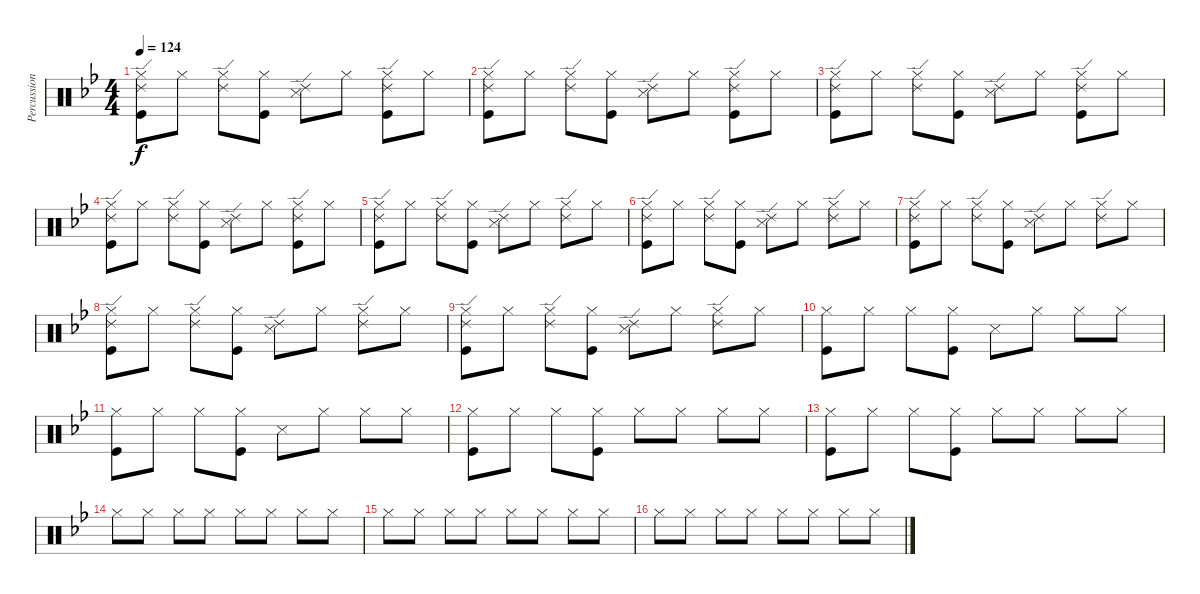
\track ("Percussion" "Percussion") {instrument percussion}
\staff {score}
\articulation defaults
\ts (4 4)
\tempo 124
\clef neutral
\ks gminor
("Ride (edge) 2" "Hi-Hat (closed)" "Kick (hit)").8{dy f} "Hi-Hat (closed)".8 ("Ride (edge) 2" "Hi-Hat (closed)").8 ("Hi-Hat (closed)" "Kick (hit)").8 ("Ride (edge) 2" "Snare (side stick) 3").8 "Hi-Hat (closed)".8 ("Ride (edge) 2" "Hi-Hat (closed)" "Kick (hit)").8 "Hi-Hat (closed)".8 |
("Ride (edge) 2" "Hi-Hat (closed)" "Kick (hit)").8 "Hi-Hat (closed)".8 ("Ride (edge) 2" "Hi-Hat (closed)").8 ("Hi-Hat (closed)" "Kick (hit)").8 ("Ride (edge) 2" "Snare (side stick) 3").8 "Hi-Hat (closed)".8 ("Ride (edge) 2" "Hi-Hat (closed)" "Kick (hit)").8 "Hi-Hat (closed)".8 |
("Ride (edge) 2" "Hi-Hat (closed)" "Kick (hit)").8 "Hi-Hat (closed)".8 ("Ride (edge) 2" "Hi-Hat (closed)").8 ("Hi-Hat (closed)" "Kick (hit)").8 ("Ride (edge) 2" "Snare (side stick) 3").8 "Hi-Hat (closed)".8 ("Ride (edge) 2" "Hi-Hat (closed)" "Kick (hit)").8 "Hi-Hat (closed)".8 |
("Ride (edge) 2" "Hi-Hat (closed)" "Kick (hit)").8 "Hi-Hat (closed)".8 ("Ride (edge) 2" "Hi-Hat (closed)").8 ("Hi-Hat (closed)" "Kick (hit)").8 ("Ride (edge) 2" "Snare (side stick) 3").8 "Hi-Hat (closed)".8 ("Ride (edge) 2" "Hi-Hat (closed)" "Kick (hit)").8 "Hi-Hat (closed)".8 |
("Ride (edge) 2" "Hi-Hat (closed)" "Kick (hit)").8 "Hi-Hat (closed)".8 ("Ride (edge) 2" "Hi-Hat (closed)").8 ("Hi-Hat (closed)" "Kick (hit)").8 ("Ride (edge) 2" "Snare (side stick) 3").8 "Hi-Hat (closed)".8 ("Ride (edge) 2" "Hi-Hat (closed)").8 "Hi-Hat (closed)".8 |
("Ride (edge) 2" "Hi-Hat (closed)" "Kick (hit)").8 "Hi-Hat (closed)".8 ("Ride (edge) 2" "Hi-Hat (closed)").8 ("Hi-Hat (closed)" "Kick (hit)").8 ("Ride (edge) 2" "Snare (side stick) 3").8 "Hi-Hat (closed)".8 ("Ride (edge) 2" "Hi-Hat (closed)").8 "Hi-Hat (closed)".8 |
("Ride (edge) 2" "Hi-Hat (closed)" "Kick (hit)").8 "Hi-Hat (closed)".8 ("Ride (edge) 2" "Hi-Hat (closed)").8 ("Hi-Hat (closed)" "Kick (hit)").8 ("Ride (edge) 2" "Snare (side stick) 3").8 "Hi-Hat (closed)".8 ("Ride (edge) 2" "Hi-Hat (closed)").8 "Hi-Hat (closed)".8 |
("Ride (edge) 2" "Hi-Hat (closed)" "Kick (hit)").8 "Hi-Hat (closed)".8 ("Ride (edge) 2" "Hi-Hat (closed)").8 ("Hi-Hat (closed)" "Kick (hit)").8 ("Ride (edge) 2" "Snare (side stick) 3").8 "Hi-Hat (closed)".8 ("Ride (edge) 2" "Hi-Hat (closed)").8 "Hi-Hat (closed)".8 |
("Ride (edge) 2" "Hi-Hat (closed)" "Kick (hit)").8 "Hi-Hat (closed)".8 ("Ride (edge) 2" "Hi-Hat (closed)").8 ("Hi-Hat (closed)" "Kick (hit)").8 ("Ride (edge) 2" "Snare (side stick) 3").8 "Hi-Hat (closed)".8 ("Ride (edge) 2" "Hi-Hat (closed)").8 "Hi-Hat (closed)".8 |
("Hi-Hat (closed)" "Kick (hit)").8 "Hi-Hat (closed)".8 "Hi-Hat (closed)".8 ("Hi-Hat (closed)" "Kick (hit)").8 "Snare (side stick) 3".8 "Hi-Hat (closed)".8 "Hi-Hat (closed)".8 "Hi-Hat (closed)".8 |
("Hi-Hat (closed)" "Kick (hit)").8 "Hi-Hat (closed)".8 "Hi-Hat (closed)".8 ("Hi-Hat (closed)" "Kick (hit)").8 "Snare (side stick) 3".8 "Hi-Hat (closed)".8 "Hi-Hat (closed)".8 "Hi-Hat (closed)".8 |
("Hi-Hat (closed)" "Kick (hit)").8 "Hi-Hat (closed)".8 "Hi-Hat (closed)".8 ("Hi-Hat (closed)" "Kick (hit)").8 "Hi-Hat (closed)".8 "Hi-Hat (closed)".8 "Hi-Hat (closed)".8 "Hi-Hat (closed)".8 |
("Hi-Hat (closed)" "Kick (hit)").8 "Hi-Hat (closed)".8 "Hi-Hat (closed)".8 ("Hi-Hat (closed)" "Kick (hit)").8 "Hi-Hat (closed)".8 "Hi-Hat (closed)".8 "Hi-Hat (closed)".8 "Hi-Hat (closed)".8 |
"Hi-Hat (closed)".8 "Hi-Hat (closed)".8 "Hi-Hat (closed)".8 "Hi-Hat (closed)".8 "Hi-Hat (closed)".8 "Hi-Hat (closed)".8 "Hi-Hat (closed)".8 "Hi-Hat (closed)".8 |
"Hi-Hat (closed)".8 "Hi-Hat (closed)".8 "Hi-Hat (closed)".8 "Hi-Hat (closed)".8 "Hi-Hat (closed)".8 "Hi-Hat (closed)".8 "Hi-Hat (closed)".8 "Hi-Hat (closed)".8 |
"Hi-Hat (closed)".8 "Hi-Hat (closed)".8 "Hi-Hat (closed)".8 "Hi-Hat (closed)".8 "Hi-Hat (closed)".8 "Hi-Hat (closed)".8 "Hi-Hat (closed)".8 "Hi-Hat (closed)".8
